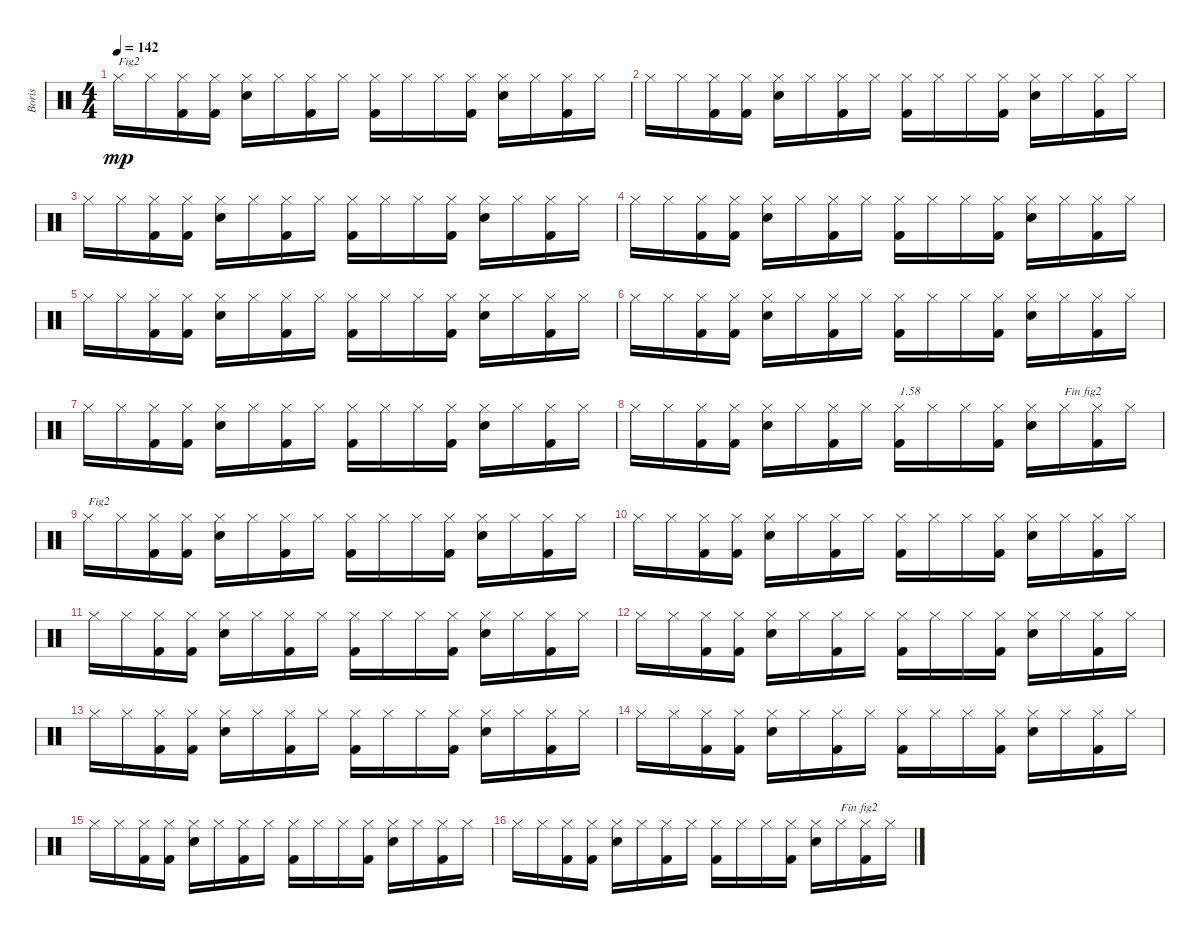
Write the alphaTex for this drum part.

\track ("Boris" "Boris") {instrument percussion}
\staff {score}
\articulation defaults
\ts (4 4)
\tempo 142
\clef neutral
\ks c "Hi-Hat (closed)".16{txt "Fig2" dy mp} "Hi-Hat (closed)".16
("Kick (hit) 2" "Hi-Hat (closed)").16 ("Kick (hit) 2" "Hi-Hat (closed)").16 ("Snare (hit) 2" "Hi-Hat (closed)").16 "Hi-Hat (closed)".16 ("Kick (hit) 2" "Hi-Hat (closed)").16 "Hi-Hat (closed)".16 ("Kick (hit) 2" "Hi-Hat (closed)").16 "Hi-Hat (closed)".16 "Hi-Hat (closed)".16 ("Kick (hit) 2" "Hi-Hat (closed)").16 ("Snare (hit) 2" "Hi-Hat (closed)").16 "Hi-Hat (closed)".16 ("Kick (hit) 2" "Hi-Hat (closed)").16 "Hi-Hat (closed)".16 |
"Hi-Hat (closed)".16 "Hi-Hat (closed)".16 ("Kick (hit) 2" "Hi-Hat (closed)").16 ("Kick (hit) 2" "Hi-Hat (closed)").16 ("Snare (hit) 2" "Hi-Hat (closed)").16 "Hi-Hat (closed)".16 ("Kick (hit) 2" "Hi-Hat (closed)").16 "Hi-Hat (closed)".16 ("Kick (hit) 2" "Hi-Hat (closed)").16 "Hi-Hat (closed)".16 "Hi-Hat (closed)".16 ("Kick (hit) 2" "Hi-Hat (closed)").16 ("Snare (hit) 2" "Hi-Hat (closed)").16 "Hi-Hat (closed)".16 ("Kick (hit) 2" "Hi-Hat (closed)").16 "Hi-Hat (closed)".16 |
"Hi-Hat (closed)".16 "Hi-Hat (closed)".16 ("Kick (hit) 2" "Hi-Hat (closed)").16 ("Kick (hit) 2" "Hi-Hat (closed)").16 ("Snare (hit) 2" "Hi-Hat (closed)").16 "Hi-Hat (closed)".16 ("Kick (hit) 2" "Hi-Hat (closed)").16 "Hi-Hat (closed)".16 ("Kick (hit) 2" "Hi-Hat (closed)").16 "Hi-Hat (closed)".16 "Hi-Hat (closed)".16 ("Kick (hit) 2" "Hi-Hat (closed)").16 ("Snare (hit) 2" "Hi-Hat (closed)").16 "Hi-Hat (closed)".16 ("Kick (hit) 2" "Hi-Hat (closed)").16 "Hi-Hat (closed)".16 |
"Hi-Hat (closed)".16 "Hi-Hat (closed)".16 ("Kick (hit) 2" "Hi-Hat (closed)").16 ("Kick (hit) 2" "Hi-Hat (closed)").16 ("Snare (hit) 2" "Hi-Hat (closed)").16 "Hi-Hat (closed)".16 ("Kick (hit) 2" "Hi-Hat (closed)").16 "Hi-Hat (closed)".16 ("Kick (hit) 2" "Hi-Hat (closed)").16 "Hi-Hat (closed)".16 "Hi-Hat (closed)".16 ("Kick (hit) 2" "Hi-Hat (closed)").16 ("Snare (hit) 2" "Hi-Hat (closed)").16 "Hi-Hat (closed)".16 ("Kick (hit) 2" "Hi-Hat (closed)").16 "Hi-Hat (closed)".16 |
"Hi-Hat (closed)".16 "Hi-Hat (closed)".16 ("Kick (hit) 2" "Hi-Hat (closed)").16 ("Kick (hit) 2" "Hi-Hat (closed)").16 ("Snare (hit) 2" "Hi-Hat (closed)").16 "Hi-Hat (closed)".16 ("Kick (hit) 2" "Hi-Hat (closed)").16 "Hi-Hat (closed)".16 ("Kick (hit) 2" "Hi-Hat (closed)").16 "Hi-Hat (closed)".16 "Hi-Hat (closed)".16 ("Kick (hit) 2" "Hi-Hat (closed)").16 ("Snare (hit) 2" "Hi-Hat (closed)").16 "Hi-Hat (closed)".16 ("Kick (hit) 2" "Hi-Hat (closed)").16 "Hi-Hat (closed)".16 |
"Hi-Hat (closed)".16 "Hi-Hat (closed)".16 ("Kick (hit) 2" "Hi-Hat (closed)").16 ("Kick (hit) 2" "Hi-Hat (closed)").16 ("Snare (hit) 2" "Hi-Hat (closed)").16 "Hi-Hat (closed)".16 ("Kick (hit) 2" "Hi-Hat (closed)").16 "Hi-Hat (closed)".16 ("Kick (hit) 2" "Hi-Hat (closed)").16 "Hi-Hat (closed)".16 "Hi-Hat (closed)".16 ("Kick (hit) 2" "Hi-Hat (closed)").16 ("Snare (hit) 2" "Hi-Hat (closed)").16 "Hi-Hat (closed)".16 ("Kick (hit) 2" "Hi-Hat (closed)").16 "Hi-Hat (closed)".16 |
"Hi-Hat (closed)".16 "Hi-Hat (closed)".16 ("Kick (hit) 2" "Hi-Hat (closed)").16 ("Kick (hit) 2" "Hi-Hat (closed)").16 ("Snare (hit) 2" "Hi-Hat (closed)").16 "Hi-Hat (closed)".16 ("Kick (hit) 2" "Hi-Hat (closed)").16 "Hi-Hat (closed)".16 ("Kick (hit) 2" "Hi-Hat (closed)").16 "Hi-Hat (closed)".16 "Hi-Hat (closed)".16 ("Kick (hit) 2" "Hi-Hat (closed)").16 ("Snare (hit) 2" "Hi-Hat (closed)").16 "Hi-Hat (closed)".16 ("Kick (hit) 2" "Hi-Hat (closed)").16 "Hi-Hat (closed)".16 |
"Hi-Hat (closed)".16 "Hi-Hat (closed)".16 ("Kick (hit) 2" "Hi-Hat (closed)").16 ("Kick (hit) 2" "Hi-Hat (closed)").16 ("Snare (hit) 2" "Hi-Hat (closed)").16 "Hi-Hat (closed)".16 ("Kick (hit) 2" "Hi-Hat (closed)").16 "Hi-Hat (closed)".16 ("Kick (hit) 2" "Hi-Hat (closed)").16{txt "1.58"} "Hi-Hat (closed)".16 "Hi-Hat (closed)".16 ("Kick (hit) 2" "Hi-Hat (closed)").16 ("Snare (hit) 2" "Hi-Hat (closed)").16 "Hi-Hat (closed)".16{txt "Fin fig2"} ("Kick (hit) 2" "Hi-Hat (closed)").16 "Hi-Hat (closed)".16 |
"Hi-Hat (closed)".16{txt "Fig2"} "Hi-Hat (closed)".16 ("Kick (hit) 2" "Hi-Hat (closed)").16 ("Kick (hit) 2" "Hi-Hat (closed)").16 ("Snare (hit) 2" "Hi-Hat (closed)").16 "Hi-Hat (closed)".16 ("Kick (hit) 2" "Hi-Hat (closed)").16 "Hi-Hat (closed)".16 ("Kick (hit) 2" "Hi-Hat (closed)").16 "Hi-Hat (closed)".16 "Hi-Hat (closed)".16 ("Kick (hit) 2" "Hi-Hat (closed)").16 ("Snare (hit) 2" "Hi-Hat (closed)").16 "Hi-Hat (closed)".16 ("Kick (hit) 2" "Hi-Hat (closed)").16 "Hi-Hat (closed)".16 |
"Hi-Hat (closed)".16 "Hi-Hat (closed)".16 ("Kick (hit) 2" "Hi-Hat (closed)").16 ("Kick (hit) 2" "Hi-Hat (closed)").16 ("Snare (hit) 2" "Hi-Hat (closed)").16 "Hi-Hat (closed)".16 ("Kick (hit) 2" "Hi-Hat (closed)").16 "Hi-Hat (closed)".16 ("Kick (hit) 2" "Hi-Hat (closed)").16 "Hi-Hat (closed)".16 "Hi-Hat (closed)".16 ("Kick (hit) 2" "Hi-Hat (closed)").16 ("Snare (hit) 2" "Hi-Hat (closed)").16 "Hi-Hat (closed)".16 ("Kick (hit) 2" "Hi-Hat (closed)").16 "Hi-Hat (closed)".16 |
"Hi-Hat (closed)".16 "Hi-Hat (closed)".16 ("Kick (hit) 2" "Hi-Hat (closed)").16 ("Kick (hit) 2" "Hi-Hat (closed)").16 ("Snare (hit) 2" "Hi-Hat (closed)").16 "Hi-Hat (closed)".16 ("Kick (hit) 2" "Hi-Hat (closed)").16 "Hi-Hat (closed)".16 ("Kick (hit) 2" "Hi-Hat (closed)").16 "Hi-Hat (closed)".16 "Hi-Hat (closed)".16 ("Kick (hit) 2" "Hi-Hat (closed)").16 ("Snare (hit) 2" "Hi-Hat (closed)").16 "Hi-Hat (closed)".16 ("Kick (hit) 2" "Hi-Hat (closed)").16 "Hi-Hat (closed)".16 |
"Hi-Hat (closed)".16 "Hi-Hat (closed)".16 ("Kick (hit) 2" "Hi-Hat (closed)").16 ("Kick (hit) 2" "Hi-Hat (closed)").16 ("Snare (hit) 2" "Hi-Hat (closed)").16 "Hi-Hat (closed)".16 ("Kick (hit) 2" "Hi-Hat (closed)").16 "Hi-Hat (closed)".16 ("Kick (hit) 2" "Hi-Hat (closed)").16 "Hi-Hat (closed)".16 "Hi-Hat (closed)".16 ("Kick (hit) 2" "Hi-Hat (closed)").16 ("Snare (hit) 2" "Hi-Hat (closed)").16 "Hi-Hat (closed)".16 ("Kick (hit) 2" "Hi-Hat (closed)").16 "Hi-Hat (closed)".16 |
"Hi-Hat (closed)".16 "Hi-Hat (closed)".16 ("Kick (hit) 2" "Hi-Hat (closed)").16 ("Kick (hit) 2" "Hi-Hat (closed)").16 ("Snare (hit) 2" "Hi-Hat (closed)").16 "Hi-Hat (closed)".16 ("Kick (hit) 2" "Hi-Hat (closed)").16 "Hi-Hat (closed)".16 ("Kick (hit) 2" "Hi-Hat (closed)").16 "Hi-Hat (closed)".16 "Hi-Hat (closed)".16 ("Kick (hit) 2" "Hi-Hat (closed)").16 ("Snare (hit) 2" "Hi-Hat (closed)").16 "Hi-Hat (closed)".16 ("Kick (hit) 2" "Hi-Hat (closed)").16 "Hi-Hat (closed)".16 |
"Hi-Hat (closed)".16 "Hi-Hat (closed)".16 ("Kick (hit) 2" "Hi-Hat (closed)").16 ("Kick (hit) 2" "Hi-Hat (closed)").16 ("Snare (hit) 2" "Hi-Hat (closed)").16 "Hi-Hat (closed)".16 ("Kick (hit) 2" "Hi-Hat (closed)").16 "Hi-Hat (closed)".16 ("Kick (hit) 2" "Hi-Hat (closed)").16 "Hi-Hat (closed)".16 "Hi-Hat (closed)".16 ("Kick (hit) 2" "Hi-Hat (closed)").16 ("Snare (hit) 2" "Hi-Hat (closed)").16 "Hi-Hat (closed)".16 ("Kick (hit) 2" "Hi-Hat (closed)").16 "Hi-Hat (closed)".16 |
"Hi-Hat (closed)".16 "Hi-Hat (closed)".16 ("Kick (hit) 2" "Hi-Hat (closed)").16 ("Kick (hit) 2" "Hi-Hat (closed)").16 ("Snare (hit) 2" "Hi-Hat (closed)").16 "Hi-Hat (closed)".16 ("Kick (hit) 2" "Hi-Hat (closed)").16 "Hi-Hat (closed)".16 ("Kick (hit) 2" "Hi-Hat (closed)").16 "Hi-Hat (closed)".16 "Hi-Hat (closed)".16 ("Kick (hit) 2" "Hi-Hat (closed)").16 ("Snare (hit) 2" "Hi-Hat (closed)").16 "Hi-Hat (closed)".16 ("Kick (hit) 2" "Hi-Hat (closed)").16 "Hi-Hat (closed)".16 |
"Hi-Hat (closed)".16 "Hi-Hat (closed)".16 ("Kick (hit) 2" "Hi-Hat (closed)").16 ("Kick (hit) 2" "Hi-Hat (closed)").16 ("Snare (hit) 2" "Hi-Hat (closed)").16 "Hi-Hat (closed)".16 ("Kick (hit) 2" "Hi-Hat (closed)").16 "Hi-Hat (closed)".16 ("Kick (hit) 2" "Hi-Hat (closed)").16 "Hi-Hat (closed)".16 "Hi-Hat (closed)".16 ("Kick (hit) 2" "Hi-Hat (closed)").16 ("Snare (hit) 2" "Hi-Hat (closed)").16 "Hi-Hat (closed)".16{txt "Fin fig2"} ("Kick (hit) 2" "Hi-Hat (closed)").16 "Hi-Hat (closed)".16
